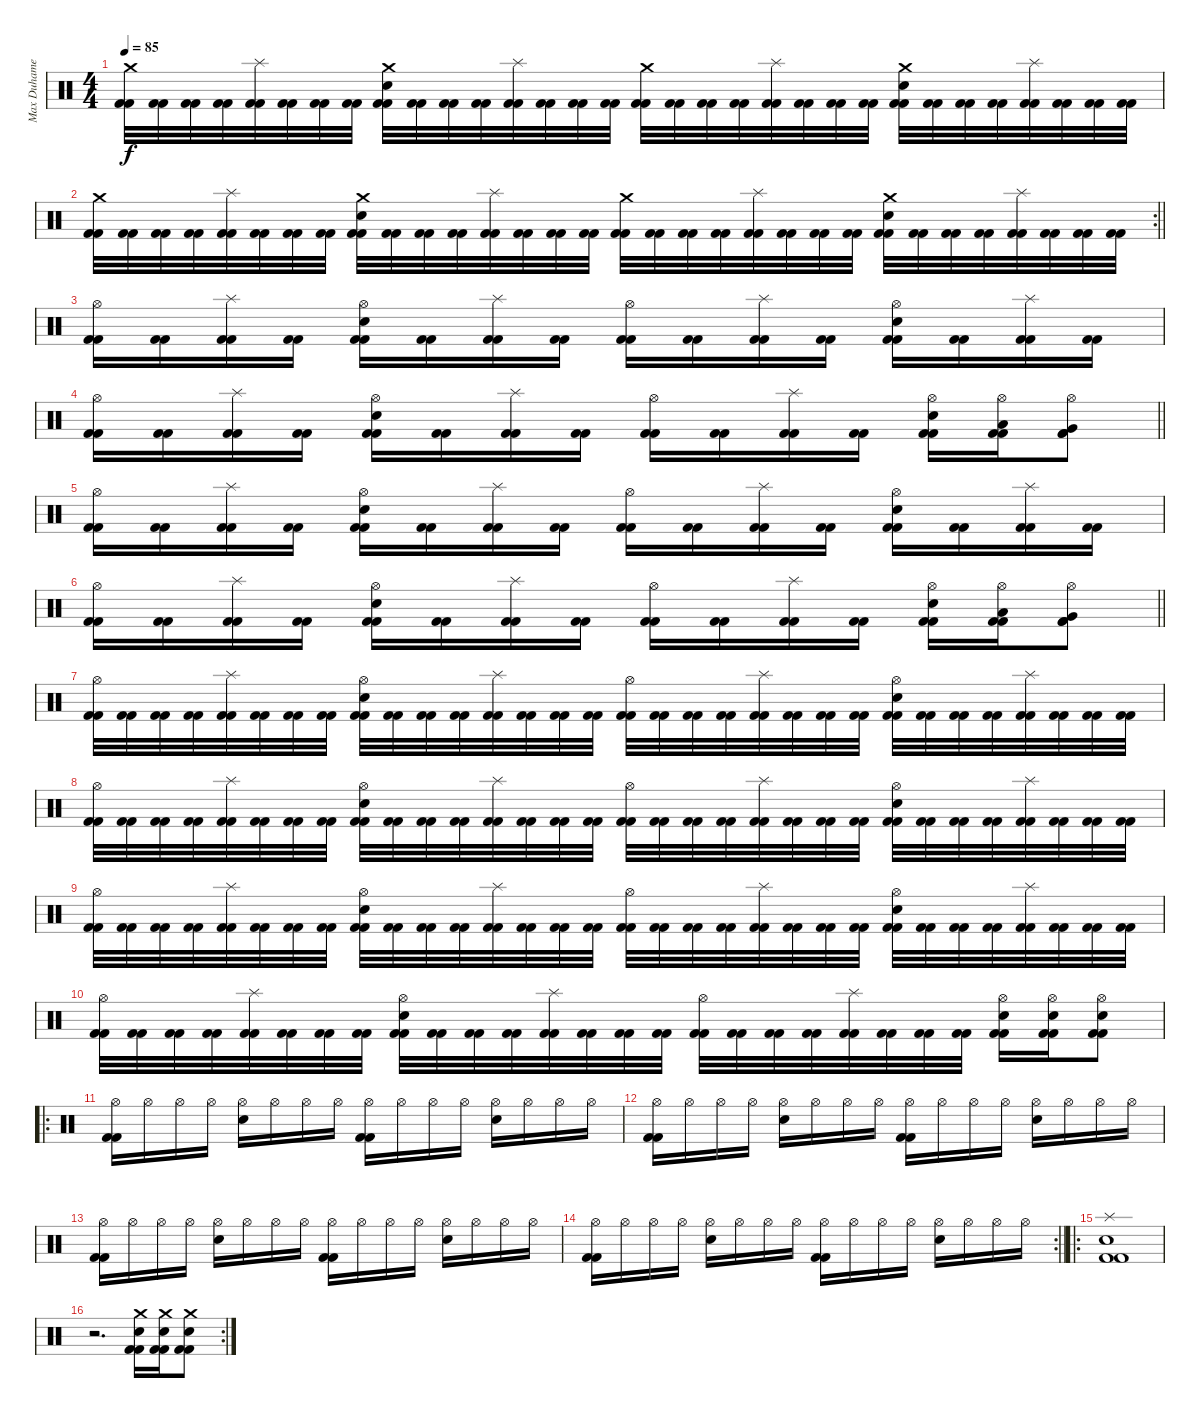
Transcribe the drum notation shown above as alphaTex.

\track ("Max Duhamel" "Max Duhame") {instrument percussion}
\staff {score}
\articulation defaults
\ts (4 4)
\tempo 85
\clef neutral
\ks c
("Crash medium (hit)" "Kick (hit) 2" "Kick (hit) 2").32{dy f} ("Kick (hit) 2" "Kick (hit) 2").32 ("Kick (hit) 2" "Kick (hit) 2").32 ("Kick (hit) 2" "Kick (hit) 2").32 ("Splash (hit)" "Kick (hit) 2" "Kick (hit) 2").32 ("Kick (hit) 2" "Kick (hit) 2").32 ("Kick (hit) 2" "Kick (hit) 2").32 ("Kick (hit) 2" "Kick (hit) 2").32 ("Crash medium (hit)" "Snare (hit) 2" "Kick (hit) 2" "Kick (hit) 2").32 ("Kick (hit) 2" "Kick (hit) 2").32 ("Kick (hit) 2" "Kick (hit) 2").32 ("Kick (hit) 2" "Kick (hit) 2").32 ("Splash (hit)" "Kick (hit) 2" "Kick (hit) 2").32 ("Kick (hit) 2" "Kick (hit) 2").32 ("Kick (hit) 2" "Kick (hit) 2").32 ("Kick (hit) 2" "Kick (hit) 2").32 ("Crash medium (hit)" "Kick (hit) 2" "Kick (hit) 2").32 ("Kick (hit) 2" "Kick (hit) 2").32 ("Kick (hit) 2" "Kick (hit) 2").32 ("Kick (hit) 2" "Kick (hit) 2").32 ("Splash (hit)" "Kick (hit) 2" "Kick (hit) 2").32 ("Kick (hit) 2" "Kick (hit) 2").32 ("Kick (hit) 2" "Kick (hit) 2").32 ("Kick (hit) 2" "Kick (hit) 2").32 ("Crash medium (hit)" "Snare (hit) 2" "Kick (hit) 2" "Kick (hit) 2").32 ("Kick (hit) 2" "Kick (hit) 2").32 ("Kick (hit) 2" "Kick (hit) 2").32 ("Kick (hit) 2" "Kick (hit) 2").32 ("Splash (hit)" "Kick (hit) 2" "Kick (hit) 2").32 ("Kick (hit) 2" "Kick (hit) 2").32 ("Kick (hit) 2" "Kick (hit) 2").32 ("Kick (hit) 2" "Kick (hit) 2").32 |
\rc 2
\barLineRight lightlight
("Crash medium (hit)" "Kick (hit) 2" "Kick (hit) 2").32 ("Kick (hit) 2" "Kick (hit) 2").32 ("Kick (hit) 2" "Kick (hit) 2").32 ("Kick (hit) 2" "Kick (hit) 2").32 ("Splash (hit)" "Kick (hit) 2" "Kick (hit) 2").32 ("Kick (hit) 2" "Kick (hit) 2").32 ("Kick (hit) 2" "Kick (hit) 2").32 ("Kick (hit) 2" "Kick (hit) 2").32 ("Crash medium (hit)" "Snare (hit) 2" "Kick (hit) 2" "Kick (hit) 2").32 ("Kick (hit) 2" "Kick (hit) 2").32 ("Kick (hit) 2" "Kick (hit) 2").32 ("Kick (hit) 2" "Kick (hit) 2").32 ("Splash (hit)" "Kick (hit) 2" "Kick (hit) 2").32 ("Kick (hit) 2" "Kick (hit) 2").32 ("Kick (hit) 2" "Kick (hit) 2").32 ("Kick (hit) 2" "Kick (hit) 2").32 ("Crash medium (hit)" "Kick (hit) 2" "Kick (hit) 2").32 ("Kick (hit) 2" "Kick (hit) 2").32 ("Kick (hit) 2" "Kick (hit) 2").32 ("Kick (hit) 2" "Kick (hit) 2").32 ("Splash (hit)" "Kick (hit) 2" "Kick (hit) 2").32 ("Kick (hit) 2" "Kick (hit) 2").32 ("Kick (hit) 2" "Kick (hit) 2").32 ("Kick (hit) 2" "Kick (hit) 2").32 ("Crash medium (hit)" "Snare (hit) 2" "Kick (hit) 2" "Kick (hit) 2").32 ("Kick (hit) 2" "Kick (hit) 2").32 ("Kick (hit) 2" "Kick (hit) 2").32 ("Kick (hit) 2" "Kick (hit) 2").32 ("Splash (hit)" "Kick (hit) 2" "Kick (hit) 2").32 ("Kick (hit) 2" "Kick (hit) 2").32 ("Kick (hit) 2" "Kick (hit) 2").32 ("Kick (hit) 2" "Kick (hit) 2").32 |
("Hi-Hat (open)" "Kick (hit) 2" "Kick (hit) 2").16 ("Kick (hit) 2" "Kick (hit) 2").16 ("Splash (hit)" "Kick (hit) 2" "Kick (hit) 2").16 ("Kick (hit) 2" "Kick (hit) 2").16 ("Hi-Hat (open)" "Snare (hit) 2" "Kick (hit) 2" "Kick (hit) 2").16 ("Kick (hit) 2" "Kick (hit) 2").16 ("Splash (hit)" "Kick (hit) 2" "Kick (hit) 2").16 ("Kick (hit) 2" "Kick (hit) 2").16 ("Hi-Hat (open)" "Kick (hit) 2" "Kick (hit) 2").16 ("Kick (hit) 2" "Kick (hit) 2").16 ("Splash (hit)" "Kick (hit) 2" "Kick (hit) 2").16 ("Kick (hit) 2" "Kick (hit) 2").16 ("Hi-Hat (open)" "Snare (hit) 2" "Kick (hit) 2" "Kick (hit) 2").16 ("Kick (hit) 2" "Kick (hit) 2").16 ("Splash (hit)" "Kick (hit) 2" "Kick (hit) 2").16 ("Kick (hit) 2" "Kick (hit) 2").16 |
\barLineRight lightlight
("Hi-Hat (open)" "Kick (hit) 2" "Kick (hit) 2").16 ("Kick (hit) 2" "Kick (hit) 2").16 ("Splash (hit)" "Kick (hit) 2" "Kick (hit) 2").16 ("Kick (hit) 2" "Kick (hit) 2").16 ("Hi-Hat (open)" "Snare (hit) 2" "Kick (hit) 2" "Kick (hit) 2").16 ("Kick (hit) 2" "Kick (hit) 2").16 ("Splash (hit)" "Kick (hit) 2" "Kick (hit) 2").16 ("Kick (hit) 2" "Kick (hit) 2").16 ("Hi-Hat (open)" "Kick (hit) 2" "Kick (hit) 2").16 ("Kick (hit) 2" "Kick (hit) 2").16 ("Splash (hit)" "Kick (hit) 2" "Kick (hit) 2").16 ("Kick (hit) 2" "Kick (hit) 2").16 ("Hi-Hat (open)" "Snare (hit) 2" "Kick (hit) 2" "Kick (hit) 2").16 ("Hi-Hat (open)" "Low Tom (hit)" "Kick (hit) 2" "Kick (hit) 2").16 ("Hi-Hat (open)" "Very Low Tom (hit)" "Kick (hit) 2" "Kick (hit) 2").8 |
("Hi-Hat (open)" "Kick (hit) 2" "Kick (hit) 2").16 ("Kick (hit) 2" "Kick (hit) 2").16 ("Splash (hit)" "Kick (hit) 2" "Kick (hit) 2").16 ("Kick (hit) 2" "Kick (hit) 2").16 ("Hi-Hat (open)" "Snare (hit) 2" "Kick (hit) 2" "Kick (hit) 2").16 ("Kick (hit) 2" "Kick (hit) 2").16 ("Splash (hit)" "Kick (hit) 2" "Kick (hit) 2").16 ("Kick (hit) 2" "Kick (hit) 2").16 ("Hi-Hat (open)" "Kick (hit) 2" "Kick (hit) 2").16 ("Kick (hit) 2" "Kick (hit) 2").16 ("Splash (hit)" "Kick (hit) 2" "Kick (hit) 2").16 ("Kick (hit) 2" "Kick (hit) 2").16 ("Hi-Hat (open)" "Snare (hit) 2" "Kick (hit) 2" "Kick (hit) 2").16 ("Kick (hit) 2" "Kick (hit) 2").16 ("Splash (hit)" "Kick (hit) 2" "Kick (hit) 2").16 ("Kick (hit) 2" "Kick (hit) 2").16 |
\barLineRight lightlight
("Hi-Hat (open)" "Kick (hit) 2" "Kick (hit) 2").16 ("Kick (hit) 2" "Kick (hit) 2").16 ("Splash (hit)" "Kick (hit) 2" "Kick (hit) 2").16 ("Kick (hit) 2" "Kick (hit) 2").16 ("Hi-Hat (open)" "Snare (hit) 2" "Kick (hit) 2" "Kick (hit) 2").16 ("Kick (hit) 2" "Kick (hit) 2").16 ("Splash (hit)" "Kick (hit) 2" "Kick (hit) 2").16 ("Kick (hit) 2" "Kick (hit) 2").16 ("Hi-Hat (open)" "Kick (hit) 2" "Kick (hit) 2").16 ("Kick (hit) 2" "Kick (hit) 2").16 ("Splash (hit)" "Kick (hit) 2" "Kick (hit) 2").16 ("Kick (hit) 2" "Kick (hit) 2").16 ("Hi-Hat (open)" "Snare (hit) 2" "Kick (hit) 2" "Kick (hit) 2").16 ("Hi-Hat (open)" "Low Tom (hit)" "Kick (hit) 2" "Kick (hit) 2").16 ("Hi-Hat (open)" "Very Low Tom (hit)" "Kick (hit) 2" "Kick (hit) 2").8 |
("Hi-Hat (open)" "Kick (hit) 2" "Kick (hit) 2").32 ("Kick (hit) 2" "Kick (hit) 2").32 ("Kick (hit) 2" "Kick (hit) 2").32 ("Kick (hit) 2" "Kick (hit) 2").32 ("Splash (hit)" "Kick (hit) 2" "Kick (hit) 2").32 ("Kick (hit) 2" "Kick (hit) 2").32 ("Kick (hit) 2" "Kick (hit) 2").32 ("Kick (hit) 2" "Kick (hit) 2").32 ("Snare (hit) 2" "Hi-Hat (open)" "Kick (hit) 2" "Kick (hit) 2").32 ("Kick (hit) 2" "Kick (hit) 2").32 ("Kick (hit) 2" "Kick (hit) 2").32 ("Kick (hit) 2" "Kick (hit) 2").32 ("Splash (hit)" "Kick (hit) 2" "Kick (hit) 2").32 ("Kick (hit) 2" "Kick (hit) 2").32 ("Kick (hit) 2" "Kick (hit) 2").32 ("Kick (hit) 2" "Kick (hit) 2").32 ("Hi-Hat (open)" "Kick (hit) 2" "Kick (hit) 2").32 ("Kick (hit) 2" "Kick (hit) 2").32 ("Kick (hit) 2" "Kick (hit) 2").32 ("Kick (hit) 2" "Kick (hit) 2").32 ("Splash (hit)" "Kick (hit) 2" "Kick (hit) 2").32 ("Kick (hit) 2" "Kick (hit) 2").32 ("Kick (hit) 2" "Kick (hit) 2").32 ("Kick (hit) 2" "Kick (hit) 2").32 ("Snare (hit) 2" "Hi-Hat (open)" "Kick (hit) 2" "Kick (hit) 2").32 ("Kick (hit) 2" "Kick (hit) 2").32 ("Kick (hit) 2" "Kick (hit) 2").32 ("Kick (hit) 2" "Kick (hit) 2").32 ("Splash (hit)" "Kick (hit) 2" "Kick (hit) 2").32 ("Kick (hit) 2" "Kick (hit) 2").32 ("Kick (hit) 2" "Kick (hit) 2").32 ("Kick (hit) 2" "Kick (hit) 2").32 |
("Hi-Hat (open)" "Kick (hit) 2" "Kick (hit) 2").32 ("Kick (hit) 2" "Kick (hit) 2").32 ("Kick (hit) 2" "Kick (hit) 2").32 ("Kick (hit) 2" "Kick (hit) 2").32 ("Splash (hit)" "Kick (hit) 2" "Kick (hit) 2").32 ("Kick (hit) 2" "Kick (hit) 2").32 ("Kick (hit) 2" "Kick (hit) 2").32 ("Kick (hit) 2" "Kick (hit) 2").32 ("Snare (hit) 2" "Hi-Hat (open)" "Kick (hit) 2" "Kick (hit) 2").32 ("Kick (hit) 2" "Kick (hit) 2").32 ("Kick (hit) 2" "Kick (hit) 2").32 ("Kick (hit) 2" "Kick (hit) 2").32 ("Splash (hit)" "Kick (hit) 2" "Kick (hit) 2").32 ("Kick (hit) 2" "Kick (hit) 2").32 ("Kick (hit) 2" "Kick (hit) 2").32 ("Kick (hit) 2" "Kick (hit) 2").32 ("Hi-Hat (open)" "Kick (hit) 2" "Kick (hit) 2").32 ("Kick (hit) 2" "Kick (hit) 2").32 ("Kick (hit) 2" "Kick (hit) 2").32 ("Kick (hit) 2" "Kick (hit) 2").32 ("Splash (hit)" "Kick (hit) 2" "Kick (hit) 2").32 ("Kick (hit) 2" "Kick (hit) 2").32 ("Kick (hit) 2" "Kick (hit) 2").32 ("Kick (hit) 2" "Kick (hit) 2").32 ("Snare (hit) 2" "Hi-Hat (open)" "Kick (hit) 2" "Kick (hit) 2").32 ("Kick (hit) 2" "Kick (hit) 2").32 ("Kick (hit) 2" "Kick (hit) 2").32 ("Kick (hit) 2" "Kick (hit) 2").32 ("Splash (hit)" "Kick (hit) 2" "Kick (hit) 2").32 ("Kick (hit) 2" "Kick (hit) 2").32 ("Kick (hit) 2" "Kick (hit) 2").32 ("Kick (hit) 2" "Kick (hit) 2").32 |
("Hi-Hat (open)" "Kick (hit) 2" "Kick (hit) 2").32 ("Kick (hit) 2" "Kick (hit) 2").32 ("Kick (hit) 2" "Kick (hit) 2").32 ("Kick (hit) 2" "Kick (hit) 2").32 ("Splash (hit)" "Kick (hit) 2" "Kick (hit) 2").32 ("Kick (hit) 2" "Kick (hit) 2").32 ("Kick (hit) 2" "Kick (hit) 2").32 ("Kick (hit) 2" "Kick (hit) 2").32 ("Snare (hit) 2" "Hi-Hat (open)" "Kick (hit) 2" "Kick (hit) 2").32 ("Kick (hit) 2" "Kick (hit) 2").32 ("Kick (hit) 2" "Kick (hit) 2").32 ("Kick (hit) 2" "Kick (hit) 2").32 ("Splash (hit)" "Kick (hit) 2" "Kick (hit) 2").32 ("Kick (hit) 2" "Kick (hit) 2").32 ("Kick (hit) 2" "Kick (hit) 2").32 ("Kick (hit) 2" "Kick (hit) 2").32 ("Hi-Hat (open)" "Kick (hit) 2" "Kick (hit) 2").32 ("Kick (hit) 2" "Kick (hit) 2").32 ("Kick (hit) 2" "Kick (hit) 2").32 ("Kick (hit) 2" "Kick (hit) 2").32 ("Splash (hit)" "Kick (hit) 2" "Kick (hit) 2").32 ("Kick (hit) 2" "Kick (hit) 2").32 ("Kick (hit) 2" "Kick (hit) 2").32 ("Kick (hit) 2" "Kick (hit) 2").32 ("Snare (hit) 2" "Hi-Hat (open)" "Kick (hit) 2" "Kick (hit) 2").32 ("Kick (hit) 2" "Kick (hit) 2").32 ("Kick (hit) 2" "Kick (hit) 2").32 ("Kick (hit) 2" "Kick (hit) 2").32 ("Splash (hit)" "Kick (hit) 2" "Kick (hit) 2").32 ("Kick (hit) 2" "Kick (hit) 2").32 ("Kick (hit) 2" "Kick (hit) 2").32 ("Kick (hit) 2" "Kick (hit) 2").32 |
("Hi-Hat (open)" "Kick (hit) 2" "Kick (hit) 2").32 ("Kick (hit) 2" "Kick (hit) 2").32 ("Kick (hit) 2" "Kick (hit) 2").32 ("Kick (hit) 2" "Kick (hit) 2").32 ("Splash (hit)" "Kick (hit) 2" "Kick (hit) 2").32 ("Kick (hit) 2" "Kick (hit) 2").32 ("Kick (hit) 2" "Kick (hit) 2").32 ("Kick (hit) 2" "Kick (hit) 2").32 ("Snare (hit) 2" "Hi-Hat (open)" "Kick (hit) 2" "Kick (hit) 2").32 ("Kick (hit) 2" "Kick (hit) 2").32 ("Kick (hit) 2" "Kick (hit) 2").32 ("Kick (hit) 2" "Kick (hit) 2").32 ("Splash (hit)" "Kick (hit) 2" "Kick (hit) 2").32 ("Kick (hit) 2" "Kick (hit) 2").32 ("Kick (hit) 2" "Kick (hit) 2").32 ("Kick (hit) 2" "Kick (hit) 2").32 ("Hi-Hat (open)" "Kick (hit) 2" "Kick (hit) 2").32 ("Kick (hit) 2" "Kick (hit) 2").32 ("Kick (hit) 2" "Kick (hit) 2").32 ("Kick (hit) 2" "Kick (hit) 2").32 ("Splash (hit)" "Kick (hit) 2" "Kick (hit) 2").32 ("Kick (hit) 2" "Kick (hit) 2").32 ("Kick (hit) 2" "Kick (hit) 2").32 ("Kick (hit) 2" "Kick (hit) 2").32 ("Snare (hit) 2" "Hi-Hat (open)" "Kick (hit) 2" "Kick (hit) 2").16 ("Snare (hit) 2" "Hi-Hat (open)" "Kick (hit) 2" "Kick (hit) 2").16 ("Snare (hit) 2" "Hi-Hat (open)" "Kick (hit) 2" "Kick (hit) 2").8 |
\ro
("Kick (hit) 2" "Kick (hit) 2" "Hi-Hat (open)").16 "Hi-Hat (open)".16 "Hi-Hat (open)".16 "Hi-Hat (open)".16 ("Snare (hit) 2" "Hi-Hat (open)").16 "Hi-Hat (open)".16 "Hi-Hat (open)".16 "Hi-Hat (open)".16 ("Kick (hit) 2" "Kick (hit) 2" "Hi-Hat (open)").16 "Hi-Hat (open)".16 "Hi-Hat (open)".16 "Hi-Hat (open)".16 ("Snare (hit) 2" "Hi-Hat (open)").16 "Hi-Hat (open)".16 "Hi-Hat (open)".16 "Hi-Hat (open)".16 |
("Kick (hit) 2" "Kick (hit) 2" "Hi-Hat (open)").16 "Hi-Hat (open)".16 "Hi-Hat (open)".16 "Hi-Hat (open)".16 ("Snare (hit) 2" "Hi-Hat (open)").16 "Hi-Hat (open)".16 "Hi-Hat (open)".16 "Hi-Hat (open)".16 ("Kick (hit) 2" "Kick (hit) 2" "Hi-Hat (open)").16 "Hi-Hat (open)".16 "Hi-Hat (open)".16 "Hi-Hat (open)".16 ("Snare (hit) 2" "Hi-Hat (open)").16 "Hi-Hat (open)".16 "Hi-Hat (open)".16 "Hi-Hat (open)".16 |
("Kick (hit) 2" "Kick (hit) 2" "Hi-Hat (open)").16 "Hi-Hat (open)".16 "Hi-Hat (open)".16 "Hi-Hat (open)".16 ("Snare (hit) 2" "Hi-Hat (open)").16 "Hi-Hat (open)".16 "Hi-Hat (open)".16 "Hi-Hat (open)".16 ("Kick (hit) 2" "Kick (hit) 2" "Hi-Hat (open)").16 "Hi-Hat (open)".16 "Hi-Hat (open)".16 "Hi-Hat (open)".16 ("Snare (hit) 2" "Hi-Hat (open)").16 "Hi-Hat (open)".16 "Hi-Hat (open)".16 "Hi-Hat (open)".16 |
\rc 2
\barLineRight lightlight
("Kick (hit) 2" "Kick (hit) 2" "Hi-Hat (open)").16 "Hi-Hat (open)".16 "Hi-Hat (open)".16 "Hi-Hat (open)".16 ("Snare (hit) 2" "Hi-Hat (open)").16 "Hi-Hat (open)".16 "Hi-Hat (open)".16 "Hi-Hat (open)".16 ("Kick (hit) 2" "Kick (hit) 2" "Hi-Hat (open)").16 "Hi-Hat (open)".16 "Hi-Hat (open)".16 "Hi-Hat (open)".16 ("Snare (hit) 2" "Hi-Hat (open)").16 "Hi-Hat (open)".16 "Hi-Hat (open)".16 "Hi-Hat (open)".16 |
\ro
("Splash (hit)" "Snare (hit) 2" "Kick (hit) 2" "Kick (hit) 2").1 |
\rc 2
r.2{d} ("Crash medium (hit)" "Snare (hit) 2" "Kick (hit) 2" "Kick (hit) 2").16 ("Crash medium (hit)" "Snare (hit) 2" "Kick (hit) 2" "Kick (hit) 2").16 ("Crash medium (hit)" "Snare (hit) 2" "Kick (hit) 2" "Kick (hit) 2").8
